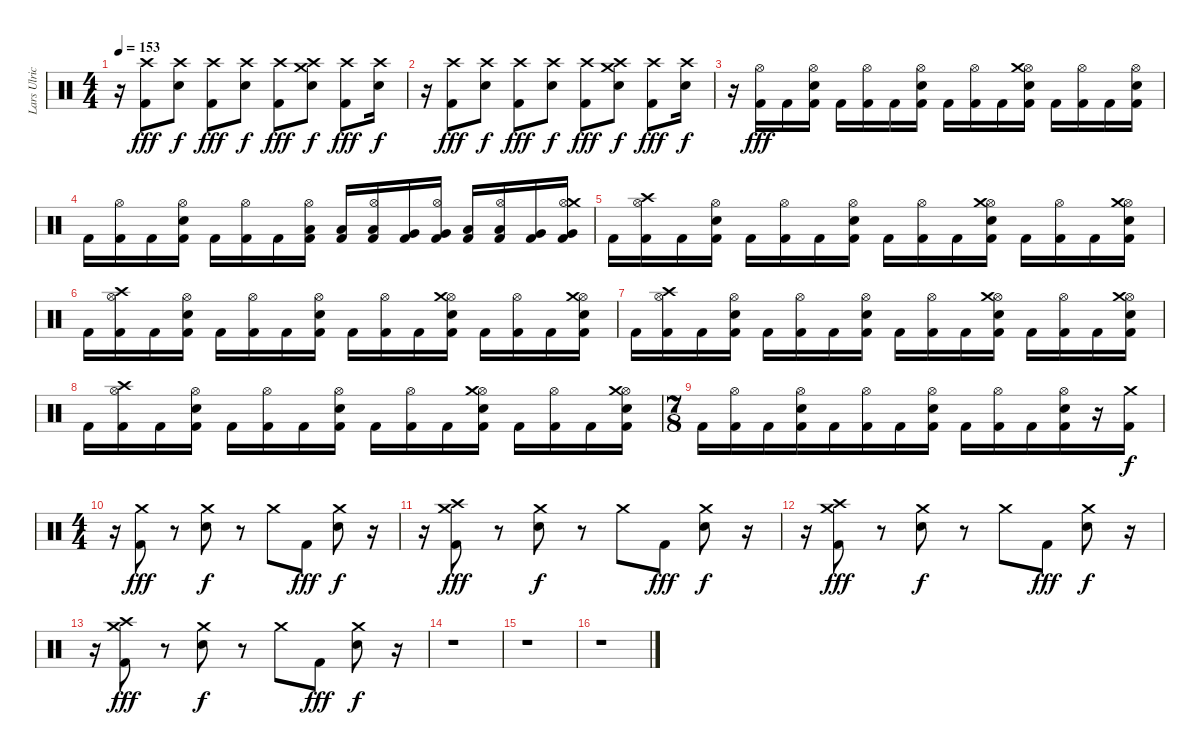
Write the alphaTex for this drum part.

\track ("Lars Ulrich (Drums)" "Lars Ulric") {instrument percussion}
\staff {score}
\articulation defaults
\ts (4 4)
\tempo 153
\clef neutral
\ks c
r.16{dy f} ("Crash high (hit)" "Kick (hit) 2").8{dy fff} ("Crash high (hit)" "Electric Snare (hit)").8{dy f} ("Crash high (hit)" "Kick (hit) 2").8{dy fff} ("Crash high (hit)" "Electric Snare (hit)").8{dy f} ("Crash high (hit)" "Kick (hit) 2").8{dy fff} ("Crash high (hit)" "Crash medium (hit)" "Electric Snare (hit)").8{dy f} ("Crash high (hit)" "Kick (hit) 2").8{dy fff} ("Crash high (hit)" "Electric Snare (hit)").16{dy f} |
r.16 ("Crash high (hit)" "Kick (hit) 2").8{dy fff} ("Crash high (hit)" "Electric Snare (hit)").8{dy f} ("Crash high (hit)" "Kick (hit) 2").8{dy fff} ("Crash high (hit)" "Electric Snare (hit)").8{dy f} ("Crash high (hit)" "Kick (hit) 2").8{dy fff} ("Crash high (hit)" "Crash medium (hit)" "Electric Snare (hit)").8{dy f} ("Crash high (hit)" "Kick (hit) 2").8{dy fff} ("Crash high (hit)" "Electric Snare (hit)").16{dy f} |
r.16 ("Hi-Hat (open)" "Kick (hit) 2").16{dy fff} "Kick (hit) 2".16 ("Hi-Hat (open)" "Electric Snare (hit)" "Kick (hit) 2").16 "Kick (hit) 2".16 ("Hi-Hat (open)" "Kick (hit) 2").16 "Kick (hit) 2".16 ("Hi-Hat (open)" "Electric Snare (hit)" "Kick (hit) 2").16 "Kick (hit) 2".16 ("Hi-Hat (open)" "Kick (hit) 2").16 "Kick (hit) 2".16 ("Hi-Hat (open)" "Crash medium (hit)" "Electric Snare (hit)" "Kick (hit) 2").16 "Kick (hit) 2".16 ("Hi-Hat (open)" "Kick (hit) 2").16 "Kick (hit) 2".16 ("Hi-Hat (open)" "Electric Snare (hit)" "Kick (hit) 2").16 |
"Kick (hit) 2".16 ("Hi-Hat (open)" "Kick (hit) 2").16 "Kick (hit) 2".16 ("Hi-Hat (open)" "Electric Snare (hit)" "Kick (hit) 2").16 "Kick (hit) 2".16 ("Hi-Hat (open)" "Kick (hit) 2").16 "Kick (hit) 2".16 ("Hi-Hat (open)" "Low Tom (hit)" "Kick (hit) 2").16 ("Low Tom (hit)" "Kick (hit) 2").16 ("Hi-Hat (open)" "Low Tom (hit)" "Kick (hit) 2").16 ("Very Low Tom (hit)" "Kick (hit) 2").16 ("Hi-Hat (open)" "Very Low Tom (hit)" "Kick (hit) 2").16 ("Low Floor Tom (hit)" "Kick (hit) 2").16 ("Hi-Hat (open)" "Low Floor Tom (hit)" "Kick (hit) 2").16 ("Very Low Tom (hit)" "Kick (hit) 2").16 ("Hi-Hat (open)" "Crash medium (hit)" "Very Low Tom (hit)" "Kick (hit) 2").16 |
"Kick (hit) 2".16 ("Hi-Hat (open)" "Crash high (hit)" "Kick (hit) 2").16 "Kick (hit) 2".16 ("Hi-Hat (open)" "Electric Snare (hit)" "Kick (hit) 2").16 "Kick (hit) 2".16 ("Hi-Hat (open)" "Kick (hit) 2").16 "Kick (hit) 2".16 ("Hi-Hat (open)" "Electric Snare (hit)" "Kick (hit) 2").16 "Kick (hit) 2".16 ("Hi-Hat (open)" "Kick (hit) 2").16 "Kick (hit) 2".16 ("Hi-Hat (open)" "Crash medium (hit)" "Electric Snare (hit)" "Kick (hit) 2").16 "Kick (hit) 2".16 ("Hi-Hat (open)" "Kick (hit) 2").16 "Kick (hit) 2".16 ("Hi-Hat (open)" "Crash medium (hit)" "Electric Snare (hit)" "Kick (hit) 2").16 |
"Kick (hit) 2".16 ("Hi-Hat (open)" "Crash high (hit)" "Kick (hit) 2").16 "Kick (hit) 2".16 ("Hi-Hat (open)" "Electric Snare (hit)" "Kick (hit) 2").16 "Kick (hit) 2".16 ("Hi-Hat (open)" "Kick (hit) 2").16 "Kick (hit) 2".16 ("Hi-Hat (open)" "Electric Snare (hit)" "Kick (hit) 2").16 "Kick (hit) 2".16 ("Hi-Hat (open)" "Kick (hit) 2").16 "Kick (hit) 2".16 ("Hi-Hat (open)" "Crash medium (hit)" "Electric Snare (hit)" "Kick (hit) 2").16 "Kick (hit) 2".16 ("Hi-Hat (open)" "Kick (hit) 2").16 "Kick (hit) 2".16 ("Hi-Hat (open)" "Crash medium (hit)" "Electric Snare (hit)" "Kick (hit) 2").16 |
"Kick (hit) 2".16 ("Hi-Hat (open)" "Crash high (hit)" "Kick (hit) 2").16 "Kick (hit) 2".16 ("Hi-Hat (open)" "Electric Snare (hit)" "Kick (hit) 2").16 "Kick (hit) 2".16 ("Hi-Hat (open)" "Kick (hit) 2").16 "Kick (hit) 2".16 ("Hi-Hat (open)" "Electric Snare (hit)" "Kick (hit) 2").16 "Kick (hit) 2".16 ("Hi-Hat (open)" "Kick (hit) 2").16 "Kick (hit) 2".16 ("Hi-Hat (open)" "Crash medium (hit)" "Electric Snare (hit)" "Kick (hit) 2").16 "Kick (hit) 2".16 ("Hi-Hat (open)" "Kick (hit) 2").16 "Kick (hit) 2".16 ("Hi-Hat (open)" "Crash medium (hit)" "Electric Snare (hit)" "Kick (hit) 2").16 |
"Kick (hit) 2".16 ("Hi-Hat (open)" "Crash high (hit)" "Kick (hit) 2").16 "Kick (hit) 2".16 ("Hi-Hat (open)" "Electric Snare (hit)" "Kick (hit) 2").16 "Kick (hit) 2".16 ("Hi-Hat (open)" "Kick (hit) 2").16 "Kick (hit) 2".16 ("Hi-Hat (open)" "Electric Snare (hit)" "Kick (hit) 2").16 "Kick (hit) 2".16 ("Hi-Hat (open)" "Kick (hit) 2").16 "Kick (hit) 2".16 ("Hi-Hat (open)" "Crash medium (hit)" "Electric Snare (hit)" "Kick (hit) 2").16 "Kick (hit) 2".16 ("Hi-Hat (open)" "Kick (hit) 2").16 "Kick (hit) 2".16 ("Hi-Hat (open)" "Crash medium (hit)" "Electric Snare (hit)" "Kick (hit) 2").16 |
\ts (7 8)
"Kick (hit) 2".16 ("Hi-Hat (open)" "Kick (hit) 2").16 "Kick (hit) 2".16 ("Hi-Hat (open)" "Electric Snare (hit)" "Kick (hit) 2").16 "Kick (hit) 2".16 ("Hi-Hat (open)" "Kick (hit) 2").16 "Kick (hit) 2".16 ("Hi-Hat (open)" "Electric Snare (hit)" "Kick (hit) 2").16 "Kick (hit) 2".16 ("Hi-Hat (open)" "Kick (hit) 2").16 "Kick (hit) 2".16 ("Hi-Hat (open)" "Electric Snare (hit)" "Kick (hit) 2").16 r.16 ("Crash medium (hit)" "Kick (hit) 2").16{dy f} |
\ts (4 4)
r.16 ("Crash medium (hit)" "Kick (hit) 2").8{dy fff} r.8 ("Crash medium (hit)" "Electric Snare (hit)").8{dy f} r.8 "Crash medium (hit)".8 "Kick (hit) 2".8{dy fff} ("Crash medium (hit)" "Electric Snare (hit)").8{dy f} r.16 |
r.16 ("Crash medium (hit)" "Crash high (hit)" "Kick (hit) 2").8{dy fff} r.8 ("Crash medium (hit)" "Electric Snare (hit)").8{dy f} r.8 "Crash medium (hit)".8 "Kick (hit) 2".8{dy fff} ("Crash medium (hit)" "Electric Snare (hit)").8{dy f} r.16 |
r.16 ("Crash medium (hit)" "Crash high (hit)" "Kick (hit) 2").8{dy fff} r.8 ("Crash medium (hit)" "Electric Snare (hit)").8{dy f} r.8 "Crash medium (hit)".8 "Kick (hit) 2".8{dy fff} ("Crash medium (hit)" "Electric Snare (hit)").8{dy f} r.16 |
r.16 ("Crash medium (hit)" "Crash high (hit)" "Kick (hit) 2").8{dy fff} r.8 ("Crash medium (hit)" "Electric Snare (hit)").8{dy f} r.8 "Crash medium (hit)".8 "Kick (hit) 2".8{dy fff} ("Crash medium (hit)" "Electric Snare (hit)").8{dy f} r.16 |
r.1 |
r.1 |
r.1
